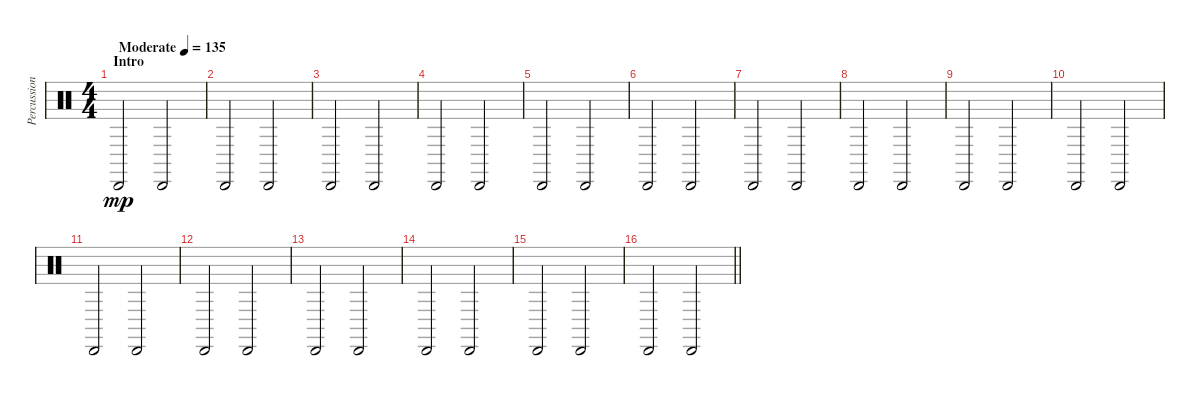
\track ("Percussion" "Percussion") {instrument percussion}
\staff {score}
\articulation defaults
\ts (4 4)
\section ("" "Intro")
\tempo (135 "Moderate")
\clef neutral
\ks c "Cabasa (hit)".2{dy mp} "Cabasa (hit)".2
|
"Cabasa (hit)".2 "Cabasa (hit)".2 |
"Cabasa (hit)".2 "Cabasa (hit)".2 |
"Cabasa (hit)".2 "Cabasa (hit)".2 |
"Cabasa (hit)".2 "Cabasa (hit)".2 |
"Cabasa (hit)".2 "Cabasa (hit)".2 |
"Cabasa (hit)".2 "Cabasa (hit)".2 |
"Cabasa (hit)".2 "Cabasa (hit)".2 |
"Cabasa (hit)".2 "Cabasa (hit)".2 |
"Cabasa (hit)".2 "Cabasa (hit)".2 |
"Cabasa (hit)".2 "Cabasa (hit)".2 |
"Cabasa (hit)".2 "Cabasa (hit)".2 |
"Cabasa (hit)".2 "Cabasa (hit)".2 |
"Cabasa (hit)".2 "Cabasa (hit)".2 |
"Cabasa (hit)".2 "Cabasa (hit)".2 |
\barLineRight lightlight "Cabasa (hit)".2 "Cabasa (hit)".2
